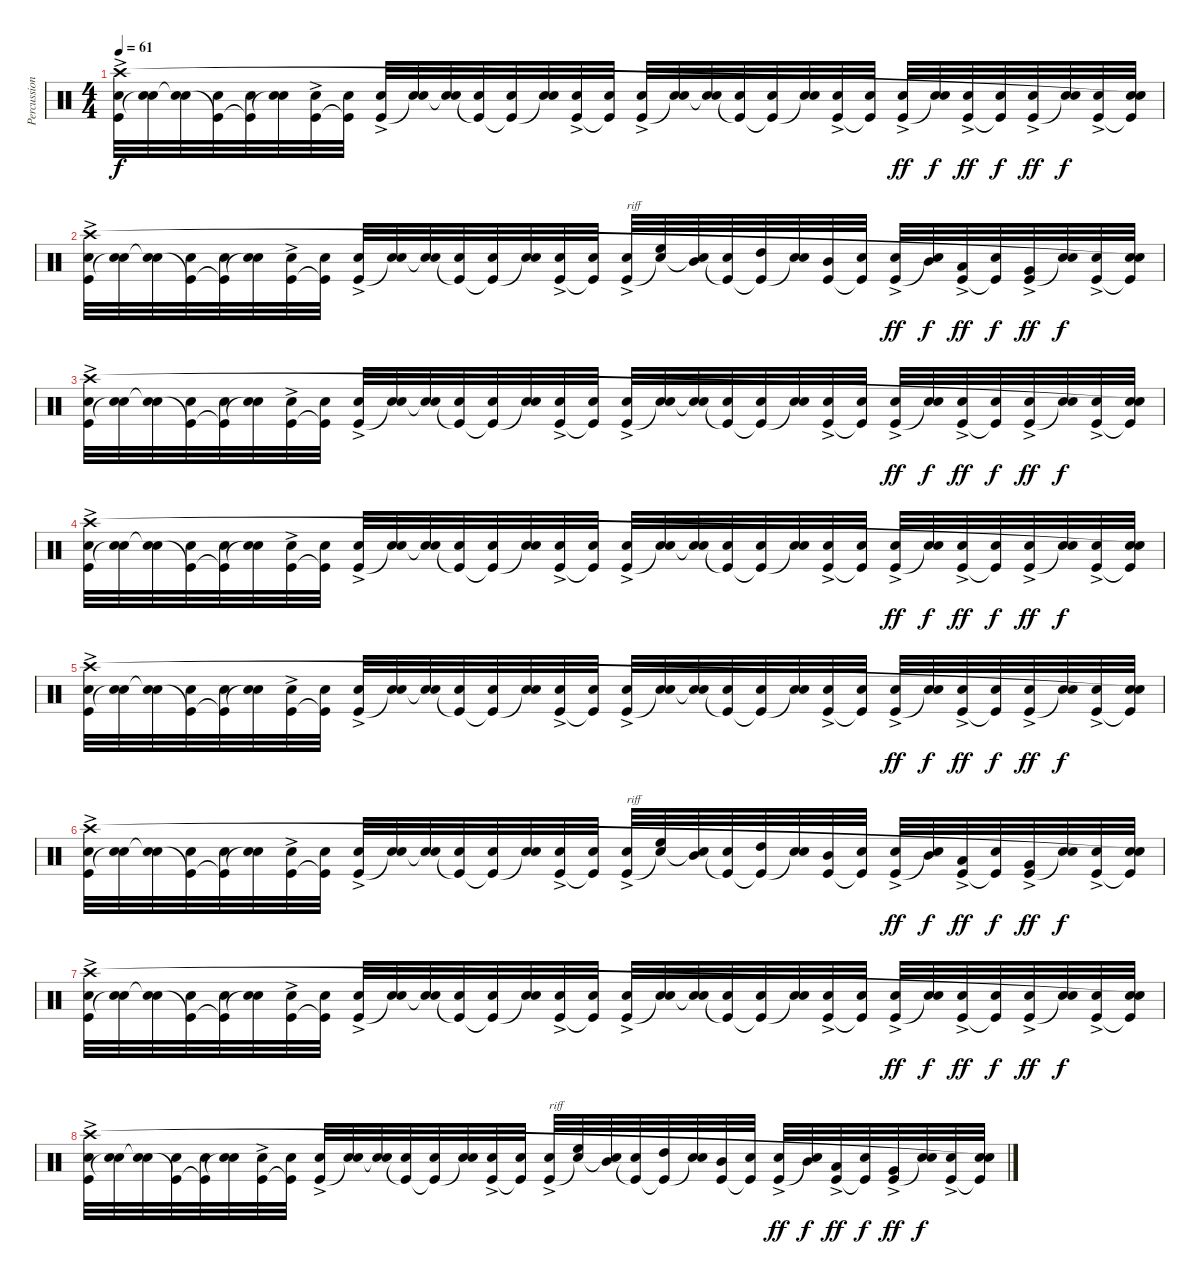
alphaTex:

\track ("Percussion" "Percussion") {instrument percussion}
\staff {score}
\articulation defaults
\ts (4 4)
\tempo 61
\clef neutral
\ks c
("Snare (hit) 2" "Kick (hit)"{ac} "Crash high (hit)").32{dy f} ("Snare (hit) 2" "Snare (hit)"{t}).32 ("Snare (hit) 2" "Snare (hit)"{t}).32 ("Snare (hit) 2" "Kick (hit)"{t}).32 ("Snare (hit) 2" "Kick (hit)"{t}).32 ("Snare (hit) 2" "Snare (hit)"{t}).32 ("Snare (hit) 2"{ac} "Kick (hit)").32 ("Snare (hit) 2" "Kick (hit)"{t}).32 ("Snare (hit) 2"{ac} "Kick (hit)").32 ("Snare (hit) 2" "Snare (hit)"{t}).32 ("Snare (hit) 2" "Snare (hit)"{t}).32 ("Snare (hit) 2" "Kick (hit)"{t}).32 ("Snare (hit) 2" "Kick (hit)"{t}).32 ("Snare (hit) 2" "Snare (hit)"{t}).32 ("Snare (hit) 2" "Kick (hit)"{ac}).32 ("Snare (hit) 2" "Kick (hit)"{t}).32 ("Snare (hit) 2" "Kick (hit)"{ac}).32 ("Snare (hit) 2" "Snare (hit)"{t}).32 ("Snare (hit) 2" "Snare (hit)"{t}).32 ("Snare (hit) 2" "Kick (hit)"{t}).32 ("Snare (hit) 2" "Kick (hit)"{t}).32 ("Snare (hit) 2" "Snare (hit)"{t}).32 ("Snare (hit) 2"{ac} "Kick (hit)").32 ("Snare (hit) 2" "Kick (hit)"{t}).32 ("Snare (hit) 2"{ac} "Kick (hit)"{ac}).32{dy ff} ("Snare (hit) 2" "Snare (hit)"{t}).32{dy f} ("Snare (hit) 2" "Kick (hit)"{ac}).32{dy ff} ("Snare (hit) 2" "Kick (hit)"{t}).32{dy f} ("Snare (hit) 2" "Kick (hit)"{ac}).32{dy ff} ("Snare (hit) 2" "Snare (hit)"{t}).32{dy f} ("Snare (hit) 2" "Kick (hit)"{ac}).32 ("Snare (hit) 2" "Kick (hit)"{t} "Snare (hit)"{t}).32 |
("Snare (hit) 2" "Kick (hit)"{ac} "Crash high (hit)").32 ("Snare (hit) 2" "Snare (hit)"{t}).32 ("Snare (hit) 2" "Snare (hit)"{t}).32 ("Snare (hit) 2" "Kick (hit)"{t}).32 ("Snare (hit) 2" "Kick (hit)"{t}).32 ("Snare (hit) 2" "Snare (hit)"{t}).32 ("Snare (hit) 2"{ac} "Kick (hit)").32 ("Snare (hit) 2" "Kick (hit)"{t}).32 ("Snare (hit) 2"{ac} "Kick (hit)").32 ("Snare (hit) 2" "Snare (hit)"{t}).32 ("Snare (hit) 2" "Snare (hit)"{t}).32 ("Snare (hit) 2" "Kick (hit)"{t}).32 ("Snare (hit) 2" "Kick (hit)"{t}).32 ("Snare (hit) 2" "Snare (hit)"{t}).32 ("Snare (hit) 2" "Kick (hit)"{ac}).32 ("Snare (hit) 2" "Kick (hit)"{t}).32 ("Snare (hit) 2" "Kick (hit)"{ac}).32{txt "riff"} ("High Floor Tom (hit)" "Snare (hit)"{t}).32 ("Mid Tom (hit)" "Snare (hit)"{t}).32 ("Snare (hit) 2" "Kick (hit)"{t}).32 ("High Tom (hit)" "Kick (hit)"{t}).32 ("Snare (hit) 2" "Snare (hit)"{t}).32 ("Mid Tom (hit)" "Kick (hit)").32 ("Snare (hit) 2" "Kick (hit)"{t}).32 ("Snare (hit) 2"{ac} "Kick (hit)"{ac}).32{dy ff} ("Mid Tom (hit)" "Snare (hit)"{t}).32{dy f} ("Low Tom (hit)" "Kick (hit)"{ac}).32{dy ff} ("Snare (hit) 2" "Kick (hit)"{t}).32{dy f} ("Very Low Tom (hit)" "Kick (hit)"{ac}).32{dy ff} ("Snare (hit) 2" "Snare (hit)"{t}).32{dy f} ("Snare (hit) 2" "Kick (hit)"{ac}).32 ("Snare (hit) 2" "Kick (hit)"{t} "Snare (hit)"{t}).32 |
("Snare (hit) 2" "Kick (hit)"{ac} "Crash high (hit)").32 ("Snare (hit) 2" "Snare (hit)"{t}).32 ("Snare (hit) 2" "Snare (hit)"{t}).32 ("Snare (hit) 2" "Kick (hit)"{t}).32 ("Snare (hit) 2" "Kick (hit)"{t}).32 ("Snare (hit) 2" "Snare (hit)"{t}).32 ("Snare (hit) 2"{ac} "Kick (hit)").32 ("Snare (hit) 2" "Kick (hit)"{t}).32 ("Snare (hit) 2"{ac} "Kick (hit)").32 ("Snare (hit) 2" "Snare (hit)"{t}).32 ("Snare (hit) 2" "Snare (hit)"{t}).32 ("Snare (hit) 2" "Kick (hit)"{t}).32 ("Snare (hit) 2" "Kick (hit)"{t}).32 ("Snare (hit) 2" "Snare (hit)"{t}).32 ("Snare (hit) 2" "Kick (hit)"{ac}).32 ("Snare (hit) 2" "Kick (hit)"{t}).32 ("Snare (hit) 2" "Kick (hit)"{ac}).32 ("Snare (hit) 2" "Snare (hit)"{t}).32 ("Snare (hit) 2" "Snare (hit)"{t}).32 ("Snare (hit) 2" "Kick (hit)"{t}).32 ("Snare (hit) 2" "Kick (hit)"{t}).32 ("Snare (hit) 2" "Snare (hit)"{t}).32 ("Snare (hit) 2"{ac} "Kick (hit)").32 ("Snare (hit) 2" "Kick (hit)"{t}).32 ("Snare (hit) 2"{ac} "Kick (hit)"{ac}).32{dy ff} ("Snare (hit) 2" "Snare (hit)"{t}).32{dy f} ("Snare (hit) 2" "Kick (hit)"{ac}).32{dy ff} ("Snare (hit) 2" "Kick (hit)"{t}).32{dy f} ("Snare (hit) 2" "Kick (hit)"{ac}).32{dy ff} ("Snare (hit) 2" "Snare (hit)"{t}).32{dy f} ("Snare (hit) 2" "Kick (hit)"{ac}).32 ("Snare (hit) 2" "Kick (hit)"{t} "Snare (hit)"{t}).32 |
("Snare (hit) 2" "Kick (hit)"{ac} "Crash high (hit)").32 ("Snare (hit) 2" "Snare (hit)"{t}).32 ("Snare (hit) 2" "Snare (hit)"{t}).32 ("Snare (hit) 2" "Kick (hit)"{t}).32 ("Snare (hit) 2" "Kick (hit)"{t}).32 ("Snare (hit) 2" "Snare (hit)"{t}).32 ("Snare (hit) 2"{ac} "Kick (hit)").32 ("Snare (hit) 2" "Kick (hit)"{t}).32 ("Snare (hit) 2"{ac} "Kick (hit)").32 ("Snare (hit) 2" "Snare (hit)"{t}).32 ("Snare (hit) 2" "Snare (hit)"{t}).32 ("Snare (hit) 2" "Kick (hit)"{t}).32 ("Snare (hit) 2" "Kick (hit)"{t}).32 ("Snare (hit) 2" "Snare (hit)"{t}).32 ("Snare (hit) 2" "Kick (hit)"{ac}).32 ("Snare (hit) 2" "Kick (hit)"{t}).32 ("Snare (hit) 2" "Kick (hit)"{ac}).32 ("Snare (hit) 2" "Snare (hit)"{t}).32 ("Snare (hit) 2" "Snare (hit)"{t}).32 ("Snare (hit) 2" "Kick (hit)"{t}).32 ("Snare (hit) 2" "Kick (hit)"{t}).32 ("Snare (hit) 2" "Snare (hit)"{t}).32 ("Snare (hit) 2"{ac} "Kick (hit)").32 ("Snare (hit) 2" "Kick (hit)"{t}).32 ("Snare (hit) 2"{ac} "Kick (hit)"{ac}).32{dy ff} ("Snare (hit) 2" "Snare (hit)"{t}).32{dy f} ("Snare (hit) 2" "Kick (hit)"{ac}).32{dy ff} ("Snare (hit) 2" "Kick (hit)"{t}).32{dy f} ("Snare (hit) 2" "Kick (hit)"{ac}).32{dy ff} ("Snare (hit) 2" "Snare (hit)"{t}).32{dy f} ("Snare (hit) 2" "Kick (hit)"{ac}).32 ("Snare (hit) 2" "Kick (hit)"{t} "Snare (hit)"{t}).32 |
("Snare (hit) 2" "Kick (hit)"{ac} "Crash high (hit)").32 ("Snare (hit) 2" "Snare (hit)"{t}).32 ("Snare (hit) 2" "Snare (hit)"{t}).32 ("Snare (hit) 2" "Kick (hit)"{t}).32 ("Snare (hit) 2" "Kick (hit)"{t}).32 ("Snare (hit) 2" "Snare (hit)"{t}).32 ("Snare (hit) 2"{ac} "Kick (hit)").32 ("Snare (hit) 2" "Kick (hit)"{t}).32 ("Snare (hit) 2"{ac} "Kick (hit)").32 ("Snare (hit) 2" "Snare (hit)"{t}).32 ("Snare (hit) 2" "Snare (hit)"{t}).32 ("Snare (hit) 2" "Kick (hit)"{t}).32 ("Snare (hit) 2" "Kick (hit)"{t}).32 ("Snare (hit) 2" "Snare (hit)"{t}).32 ("Snare (hit) 2" "Kick (hit)"{ac}).32 ("Snare (hit) 2" "Kick (hit)"{t}).32 ("Snare (hit) 2" "Kick (hit)"{ac}).32 ("Snare (hit) 2" "Snare (hit)"{t}).32 ("Snare (hit) 2" "Snare (hit)"{t}).32 ("Snare (hit) 2" "Kick (hit)"{t}).32 ("Snare (hit) 2" "Kick (hit)"{t}).32 ("Snare (hit) 2" "Snare (hit)"{t}).32 ("Snare (hit) 2"{ac} "Kick (hit)").32 ("Snare (hit) 2" "Kick (hit)"{t}).32 ("Snare (hit) 2"{ac} "Kick (hit)"{ac}).32{dy ff} ("Snare (hit) 2" "Snare (hit)"{t}).32{dy f} ("Snare (hit) 2" "Kick (hit)"{ac}).32{dy ff} ("Snare (hit) 2" "Kick (hit)"{t}).32{dy f} ("Snare (hit) 2" "Kick (hit)"{ac}).32{dy ff} ("Snare (hit) 2" "Snare (hit)"{t}).32{dy f} ("Snare (hit) 2" "Kick (hit)"{ac}).32 ("Snare (hit) 2" "Kick (hit)"{t} "Snare (hit)"{t}).32 |
("Snare (hit) 2" "Kick (hit)"{ac} "Crash high (hit)").32 ("Snare (hit) 2" "Snare (hit)"{t}).32 ("Snare (hit) 2" "Snare (hit)"{t}).32 ("Snare (hit) 2" "Kick (hit)"{t}).32 ("Snare (hit) 2" "Kick (hit)"{t}).32 ("Snare (hit) 2" "Snare (hit)"{t}).32 ("Snare (hit) 2"{ac} "Kick (hit)").32 ("Snare (hit) 2" "Kick (hit)"{t}).32 ("Snare (hit) 2"{ac} "Kick (hit)").32 ("Snare (hit) 2" "Snare (hit)"{t}).32 ("Snare (hit) 2" "Snare (hit)"{t}).32 ("Snare (hit) 2" "Kick (hit)"{t}).32 ("Snare (hit) 2" "Kick (hit)"{t}).32 ("Snare (hit) 2" "Snare (hit)"{t}).32 ("Snare (hit) 2" "Kick (hit)"{ac}).32 ("Snare (hit) 2" "Kick (hit)"{t}).32 ("Snare (hit) 2" "Kick (hit)"{ac}).32{txt "riff"} ("High Floor Tom (hit)" "Snare (hit)"{t}).32 ("Mid Tom (hit)" "Snare (hit)"{t}).32 ("Snare (hit) 2" "Kick (hit)"{t}).32 ("High Tom (hit)" "Kick (hit)"{t}).32 ("Snare (hit) 2" "Snare (hit)"{t}).32 ("Mid Tom (hit)" "Kick (hit)").32 ("Snare (hit) 2" "Kick (hit)"{t}).32 ("Snare (hit) 2"{ac} "Kick (hit)"{ac}).32{dy ff} ("Mid Tom (hit)" "Snare (hit)"{t}).32{dy f} ("Low Tom (hit)" "Kick (hit)"{ac}).32{dy ff} ("Snare (hit) 2" "Kick (hit)"{t}).32{dy f} ("Very Low Tom (hit)" "Kick (hit)"{ac}).32{dy ff} ("Snare (hit) 2" "Snare (hit)"{t}).32{dy f} ("Snare (hit) 2" "Kick (hit)"{ac}).32 ("Snare (hit) 2" "Kick (hit)"{t} "Snare (hit)"{t}).32 |
("Snare (hit) 2" "Kick (hit)"{ac} "Crash high (hit)").32 ("Snare (hit) 2" "Snare (hit)"{t}).32 ("Snare (hit) 2" "Snare (hit)"{t}).32 ("Snare (hit) 2" "Kick (hit)"{t}).32 ("Snare (hit) 2" "Kick (hit)"{t}).32 ("Snare (hit) 2" "Snare (hit)"{t}).32 ("Snare (hit) 2"{ac} "Kick (hit)").32 ("Snare (hit) 2" "Kick (hit)"{t}).32 ("Snare (hit) 2"{ac} "Kick (hit)").32 ("Snare (hit) 2" "Snare (hit)"{t}).32 ("Snare (hit) 2" "Snare (hit)"{t}).32 ("Snare (hit) 2" "Kick (hit)"{t}).32 ("Snare (hit) 2" "Kick (hit)"{t}).32 ("Snare (hit) 2" "Snare (hit)"{t}).32 ("Snare (hit) 2" "Kick (hit)"{ac}).32 ("Snare (hit) 2" "Kick (hit)"{t}).32 ("Snare (hit) 2" "Kick (hit)"{ac}).32 ("Snare (hit) 2" "Snare (hit)"{t}).32 ("Snare (hit) 2" "Snare (hit)"{t}).32 ("Snare (hit) 2" "Kick (hit)"{t}).32 ("Snare (hit) 2" "Kick (hit)"{t}).32 ("Snare (hit) 2" "Snare (hit)"{t}).32 ("Snare (hit) 2"{ac} "Kick (hit)").32 ("Snare (hit) 2" "Kick (hit)"{t}).32 ("Snare (hit) 2"{ac} "Kick (hit)"{ac}).32{dy ff} ("Snare (hit) 2" "Snare (hit)"{t}).32{dy f} ("Snare (hit) 2" "Kick (hit)"{ac}).32{dy ff} ("Snare (hit) 2" "Kick (hit)"{t}).32{dy f} ("Snare (hit) 2" "Kick (hit)"{ac}).32{dy ff} ("Snare (hit) 2" "Snare (hit)"{t}).32{dy f} ("Snare (hit) 2" "Kick (hit)"{ac}).32 ("Snare (hit) 2" "Kick (hit)"{t} "Snare (hit)"{t}).32 |
("Snare (hit) 2" "Kick (hit)"{ac} "Crash high (hit)").32 ("Snare (hit) 2" "Snare (hit)"{t}).32 ("Snare (hit) 2" "Snare (hit)"{t}).32 ("Snare (hit) 2" "Kick (hit)"{t}).32 ("Snare (hit) 2" "Kick (hit)"{t}).32 ("Snare (hit) 2" "Snare (hit)"{t}).32 ("Snare (hit) 2"{ac} "Kick (hit)").32 ("Snare (hit) 2" "Kick (hit)"{t}).32 ("Snare (hit) 2"{ac} "Kick (hit)").32 ("Snare (hit) 2" "Snare (hit)"{t}).32 ("Snare (hit) 2" "Snare (hit)"{t}).32 ("Snare (hit) 2" "Kick (hit)"{t}).32 ("Snare (hit) 2" "Kick (hit)"{t}).32 ("Snare (hit) 2" "Snare (hit)"{t}).32 ("Snare (hit) 2" "Kick (hit)"{ac}).32 ("Snare (hit) 2" "Kick (hit)"{t}).32 ("Snare (hit) 2" "Kick (hit)"{ac}).32{txt "riff"} ("High Floor Tom (hit)" "Snare (hit)"{t}).32 ("Mid Tom (hit)" "Snare (hit)"{t}).32 ("Snare (hit) 2" "Kick (hit)"{t}).32 ("High Tom (hit)" "Kick (hit)"{t}).32 ("Snare (hit) 2" "Snare (hit)"{t}).32 ("Mid Tom (hit)" "Kick (hit)").32 ("Snare (hit) 2" "Kick (hit)"{t}).32 ("Snare (hit) 2"{ac} "Kick (hit)"{ac}).32{dy ff} ("Mid Tom (hit)" "Snare (hit)"{t}).32{dy f} ("Low Tom (hit)" "Kick (hit)"{ac}).32{dy ff} ("Snare (hit) 2" "Kick (hit)"{t}).32{dy f} ("Very Low Tom (hit)" "Kick (hit)"{ac}).32{dy ff} ("Snare (hit) 2" "Snare (hit)"{t}).32{dy f} ("Snare (hit) 2" "Kick (hit)"{ac}).32 ("Snare (hit) 2" "Kick (hit)"{t} "Snare (hit)"{t}).32
